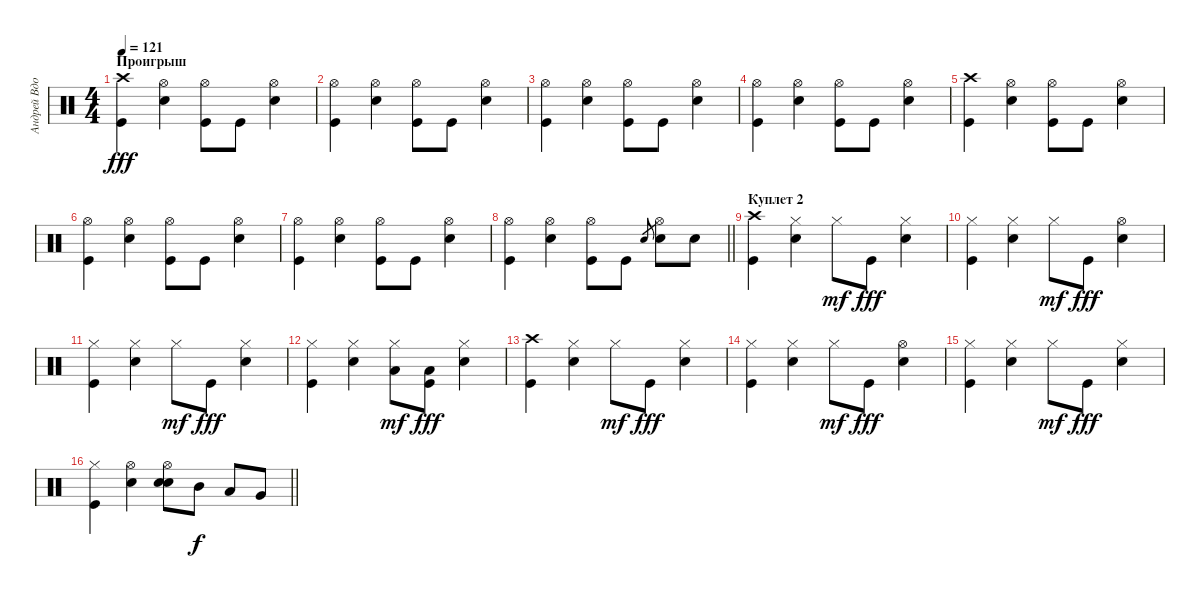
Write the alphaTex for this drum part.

\track ("Андрей Вдовиченко" "Андрей Вдо") {instrument percussion}
\staff {score}
\articulation defaults
\ts (4 4)
\section ("" "Проигрыш")
\tempo 121
\clef neutral
\ks c
("Crash high (hit)" "Kick (hit)").4{dy fff} ("Hi-Hat (open)" "Electric Snare (hit)").4 ("Hi-Hat (open)" "Kick (hit)").8 "Kick (hit)".8 ("Hi-Hat (open)" "Electric Snare (hit)").4 |
("Hi-Hat (open)" "Kick (hit)").4 ("Hi-Hat (open)" "Electric Snare (hit)").4 ("Hi-Hat (open)" "Kick (hit)").8 "Kick (hit)".8 ("Hi-Hat (open)" "Electric Snare (hit)").4 |
("Hi-Hat (open)" "Kick (hit)").4 ("Hi-Hat (open)" "Electric Snare (hit)").4 ("Hi-Hat (open)" "Kick (hit)").8 "Kick (hit)".8 ("Hi-Hat (open)" "Electric Snare (hit)").4 |
("Hi-Hat (open)" "Kick (hit)").4 ("Hi-Hat (open)" "Electric Snare (hit)").4 ("Hi-Hat (open)" "Kick (hit)").8 "Kick (hit)".8 ("Hi-Hat (open)" "Electric Snare (hit)").4 |
("Crash high (hit)" "Kick (hit)").4 ("Hi-Hat (open)" "Electric Snare (hit)").4 ("Hi-Hat (open)" "Kick (hit)").8 "Kick (hit)".8 ("Hi-Hat (open)" "Electric Snare (hit)").4 |
("Hi-Hat (open)" "Kick (hit)").4 ("Hi-Hat (open)" "Electric Snare (hit)").4 ("Hi-Hat (open)" "Kick (hit)").8 "Kick (hit)".8 ("Hi-Hat (open)" "Electric Snare (hit)").4 |
("Hi-Hat (open)" "Kick (hit)").4 ("Hi-Hat (open)" "Electric Snare (hit)").4 ("Hi-Hat (open)" "Kick (hit)").8 "Kick (hit)".8 ("Hi-Hat (open)" "Electric Snare (hit)").4 |
\barLineRight lightlight
("Hi-Hat (open)" "Kick (hit)").4 ("Hi-Hat (open)" "Electric Snare (hit)").4 ("Hi-Hat (open)" "Kick (hit)").8 "Kick (hit)".8 "Electric Snare (hit)".8{gr} ("Hi-Hat (open)" "Electric Snare (hit)").8 "Electric Snare (hit)".8 |
\section ("" "Куплет 2")
("Crash high (hit)" "Kick (hit)").4 ("Hi-Hat (closed)" "Electric Snare (hit)").4 "Hi-Hat (closed)".8{dy mf} "Kick (hit)".8{dy fff} ("Hi-Hat (closed)" "Electric Snare (hit)").4 |
("Hi-Hat (closed)" "Kick (hit)").4 ("Hi-Hat (closed)" "Electric Snare (hit)").4 "Hi-Hat (closed)".8{dy mf} "Kick (hit)".8{dy fff} ("Hi-Hat (open)" "Electric Snare (hit)").4 |
("Hi-Hat (closed)" "Kick (hit)").4 ("Hi-Hat (closed)" "Electric Snare (hit)").4 "Hi-Hat (closed)".8{dy mf} "Kick (hit)".8{dy fff} ("Hi-Hat (closed)" "Electric Snare (hit)").4 |
("Hi-Hat (closed)" "Kick (hit)").4 ("Hi-Hat (closed)" "Electric Snare (hit)").4 ("Hi-Hat (closed)" "Low Tom (hit)").8{dy mf} ("Low Tom (hit)" "Kick (hit)").8{dy fff} ("Hi-Hat (closed)" "Electric Snare (hit)").4 |
("Crash high (hit)" "Kick (hit)").4 ("Hi-Hat (closed)" "Electric Snare (hit)").4 "Hi-Hat (closed)".8{dy mf} "Kick (hit)".8{dy fff} ("Hi-Hat (closed)" "Electric Snare (hit)").4 |
("Hi-Hat (closed)" "Kick (hit)").4 ("Hi-Hat (closed)" "Electric Snare (hit)").4 "Hi-Hat (closed)".8{dy mf} "Kick (hit)".8{dy fff} ("Hi-Hat (open)" "Electric Snare (hit)").4 |
("Hi-Hat (closed)" "Kick (hit)").4 ("Hi-Hat (closed)" "Electric Snare (hit)").4 "Hi-Hat (closed)".8{dy mf} "Kick (hit)".8{dy fff} ("Hi-Hat (closed)" "Electric Snare (hit)").4 |
\barLineRight lightlight
("Hi-Hat (closed)" "Kick (hit)").4 ("Hi-Hat (open)" "Electric Snare (hit)").4 ("Hi-Hat (open)" "Snare (hit) 2" "Electric Snare (hit)").8 "Mid Tom (hit)".8{dy f} "Low Tom (hit)".8 "Very Low Tom (hit)".8
